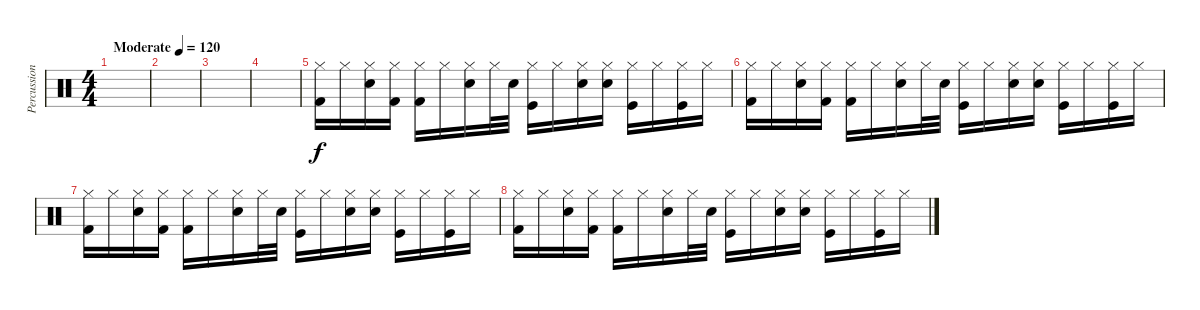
\track ("Percussion" "Percussion") {instrument percussion}
\staff {score}
\articulation defaults
\ts (4 4)
\tempo (120 "Moderate")
\clef neutral
\ks c
|
|
|
|
("Hi-Hat (closed)" "Kick (hit) 2").16 "Hi-Hat (closed)".16 ("Hi-Hat (closed)" "Snare (hit) 2").16 ("Hi-Hat (closed)" "Kick (hit) 2").16 ("Hi-Hat (closed)" "Kick (hit) 2").16 "Hi-Hat (closed)".16 ("Hi-Hat (closed)" "Snare (hit) 2").16 "Hi-Hat (closed)".32 "Snare (hit) 2".32 ("Hi-Hat (closed)" "Kick (hit)").16 "Hi-Hat (closed)".16 ("Hi-Hat (closed)" "Snare (hit) 2").16 ("Hi-Hat (closed)" "Snare (hit) 2").16 ("Hi-Hat (closed)" "Kick (hit)").16 "Hi-Hat (closed)".16 ("Hi-Hat (closed)" "Kick (hit)").16 "Hi-Hat (closed)".16 |
("Hi-Hat (closed)" "Kick (hit) 2").16 "Hi-Hat (closed)".16 ("Hi-Hat (closed)" "Snare (hit) 2").16 ("Hi-Hat (closed)" "Kick (hit) 2").16 ("Hi-Hat (closed)" "Kick (hit) 2").16 "Hi-Hat (closed)".16 ("Hi-Hat (closed)" "Snare (hit) 2").16 "Hi-Hat (closed)".32 "Snare (hit) 2".32 ("Hi-Hat (closed)" "Kick (hit)").16 "Hi-Hat (closed)".16 ("Hi-Hat (closed)" "Snare (hit) 2").16 ("Hi-Hat (closed)" "Snare (hit) 2").16 ("Hi-Hat (closed)" "Kick (hit)").16 "Hi-Hat (closed)".16 ("Hi-Hat (closed)" "Kick (hit)").16 "Hi-Hat (closed)".16 |
("Hi-Hat (closed)" "Kick (hit) 2").16 "Hi-Hat (closed)".16 ("Hi-Hat (closed)" "Snare (hit) 2").16 ("Hi-Hat (closed)" "Kick (hit) 2").16 ("Hi-Hat (closed)" "Kick (hit) 2").16 "Hi-Hat (closed)".16 ("Hi-Hat (closed)" "Snare (hit) 2").16 "Hi-Hat (closed)".32 "Snare (hit) 2".32 ("Hi-Hat (closed)" "Kick (hit)").16 "Hi-Hat (closed)".16 ("Hi-Hat (closed)" "Snare (hit) 2").16 ("Hi-Hat (closed)" "Snare (hit) 2").16 ("Hi-Hat (closed)" "Kick (hit)").16 "Hi-Hat (closed)".16 ("Hi-Hat (closed)" "Kick (hit)").16 "Hi-Hat (closed)".16 |
("Hi-Hat (closed)" "Kick (hit) 2").16 "Hi-Hat (closed)".16 ("Hi-Hat (closed)" "Snare (hit) 2").16 ("Hi-Hat (closed)" "Kick (hit) 2").16 ("Hi-Hat (closed)" "Kick (hit) 2").16 "Hi-Hat (closed)".16 ("Hi-Hat (closed)" "Snare (hit) 2").16 "Hi-Hat (closed)".32 "Snare (hit) 2".32 ("Hi-Hat (closed)" "Kick (hit)").16 "Hi-Hat (closed)".16 ("Hi-Hat (closed)" "Snare (hit) 2").16 ("Hi-Hat (closed)" "Snare (hit) 2").16 ("Hi-Hat (closed)" "Kick (hit)").16 "Hi-Hat (closed)".16 ("Hi-Hat (closed)" "Kick (hit)").16 "Hi-Hat (closed)".16
